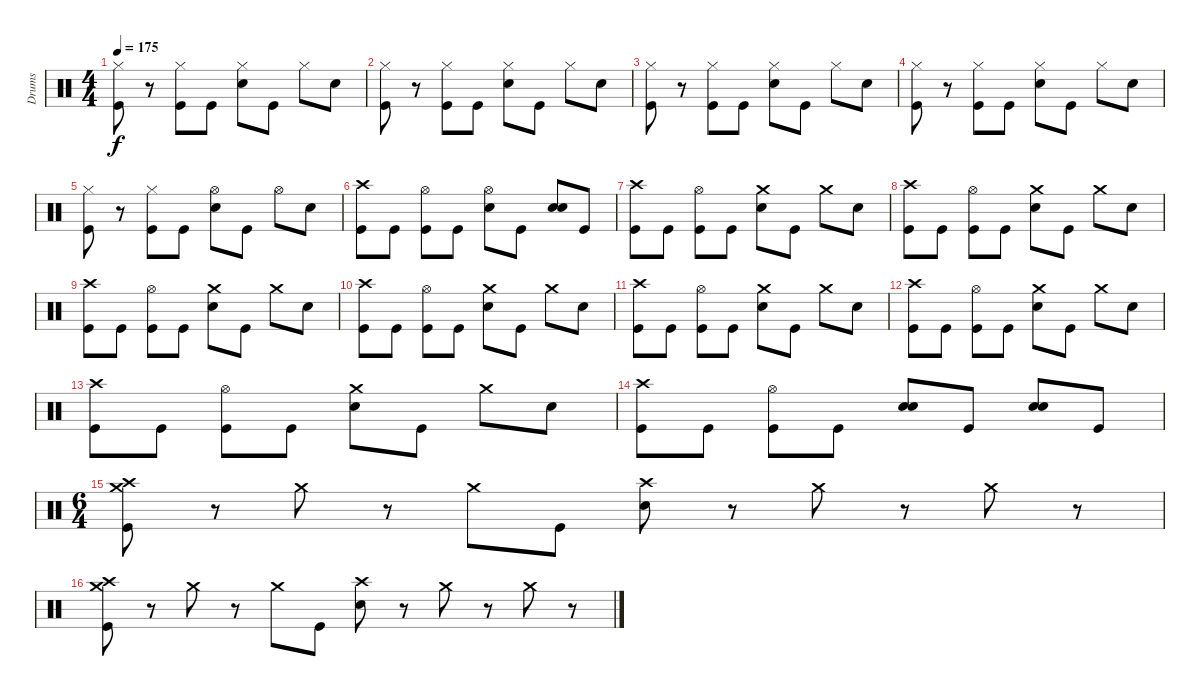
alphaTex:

\track ("Drums" "Drums") {instrument percussion}
\staff {score}
\articulation defaults
\ts (4 4)
\tempo 175
\clef neutral
\ks c
("Hi-Hat (closed)" "Kick (hit)").8{dy f} r.8 ("Hi-Hat (closed)" "Kick (hit)").8 "Kick (hit)".8 ("Hi-Hat (closed)" "Snare (hit) 2").8 "Kick (hit)".8 "Hi-Hat (closed)".8 "Snare (hit) 2".8 |
("Hi-Hat (closed)" "Kick (hit)").8 r.8 ("Hi-Hat (closed)" "Kick (hit)").8 "Kick (hit)".8 ("Hi-Hat (closed)" "Snare (hit) 2").8 "Kick (hit)".8 "Hi-Hat (closed)".8 "Snare (hit) 2".8 |
("Hi-Hat (closed)" "Kick (hit)").8 r.8 ("Hi-Hat (closed)" "Kick (hit)").8 "Kick (hit)".8 ("Hi-Hat (closed)" "Snare (hit) 2").8 "Kick (hit)".8 "Hi-Hat (closed)".8 "Snare (hit) 2".8 |
("Hi-Hat (closed)" "Kick (hit)").8 r.8 ("Hi-Hat (closed)" "Kick (hit)").8 "Kick (hit)".8 ("Hi-Hat (closed)" "Snare (hit) 2").8 "Kick (hit)".8 "Hi-Hat (closed)".8 "Snare (hit) 2".8 |
("Hi-Hat (closed)" "Kick (hit)").8 r.8 ("Hi-Hat (closed)" "Kick (hit)").8 "Kick (hit)".8 ("Hi-Hat (open)" "Snare (hit) 2").8 "Kick (hit)".8 "Hi-Hat (open)".8 "Snare (hit) 2".8 |
("Crash high (hit)" "Kick (hit)").8 "Kick (hit)".8 ("Hi-Hat (open)" "Kick (hit)").8 "Kick (hit)".8 ("Hi-Hat (open)" "Snare (hit) 2").8 "Kick (hit)".8 ("Snare (hit) 2" "Snare (hit) 2").8 "Kick (hit)".8 |
("Crash high (hit)" "Kick (hit)").8 "Kick (hit)".8 ("Hi-Hat (open)" "Kick (hit)").8 "Kick (hit)".8 ("Crash medium (hit)" "Snare (hit) 2").8 "Kick (hit)".8 "Crash medium (hit)".8 "Snare (hit) 2".8 |
("Crash high (hit)" "Kick (hit)").8 "Kick (hit)".8 ("Hi-Hat (open)" "Kick (hit)").8 "Kick (hit)".8 ("Crash medium (hit)" "Snare (hit) 2").8 "Kick (hit)".8 "Crash medium (hit)".8 "Snare (hit) 2".8 |
("Crash high (hit)" "Kick (hit)").8 "Kick (hit)".8 ("Hi-Hat (open)" "Kick (hit)").8 "Kick (hit)".8 ("Crash medium (hit)" "Snare (hit) 2").8 "Kick (hit)".8 "Crash medium (hit)".8 "Snare (hit) 2".8 |
("Crash high (hit)" "Kick (hit)").8 "Kick (hit)".8 ("Hi-Hat (open)" "Kick (hit)").8 "Kick (hit)".8 ("Crash medium (hit)" "Snare (hit) 2").8 "Kick (hit)".8 "Crash medium (hit)".8 "Snare (hit) 2".8 |
("Crash high (hit)" "Kick (hit)").8 "Kick (hit)".8 ("Hi-Hat (open)" "Kick (hit)").8 "Kick (hit)".8 ("Crash medium (hit)" "Snare (hit) 2").8 "Kick (hit)".8 "Crash medium (hit)".8 "Snare (hit) 2".8 |
("Crash high (hit)" "Kick (hit)").8 "Kick (hit)".8 ("Hi-Hat (open)" "Kick (hit)").8 "Kick (hit)".8 ("Crash medium (hit)" "Snare (hit) 2").8 "Kick (hit)".8 "Crash medium (hit)".8 "Snare (hit) 2".8 |
("Crash high (hit)" "Kick (hit)").8 "Kick (hit)".8 ("Hi-Hat (open)" "Kick (hit)").8 "Kick (hit)".8 ("Crash medium (hit)" "Snare (hit) 2").8 "Kick (hit)".8 "Crash medium (hit)".8 "Snare (hit) 2".8 |
("Crash high (hit)" "Kick (hit)").8 "Kick (hit)".8 ("Hi-Hat (open)" "Kick (hit)").8 "Kick (hit)".8 ("Snare (hit) 2" "Snare (hit) 2").8 "Kick (hit)".8 ("Snare (hit) 2" "Snare (hit) 2").8 "Kick (hit)".8 |
\ts (6 4)
("Crash high (hit)" "Crash medium (hit)" "Kick (hit)").8 r.8 "Crash medium (hit)".8 r.8 "Crash medium (hit)".8 "Kick (hit)".8 ("Crash high (hit)" "Snare (hit) 2").8 r.8 "Crash medium (hit)".8 r.8 "Crash medium (hit)".8 r.8 |
("Crash high (hit)" "Crash medium (hit)" "Kick (hit)").8 r.8 "Crash medium (hit)".8 r.8 "Crash medium (hit)".8 "Kick (hit)".8 ("Crash high (hit)" "Snare (hit) 2").8 r.8 "Crash medium (hit)".8 r.8 "Crash medium (hit)".8 r.8
